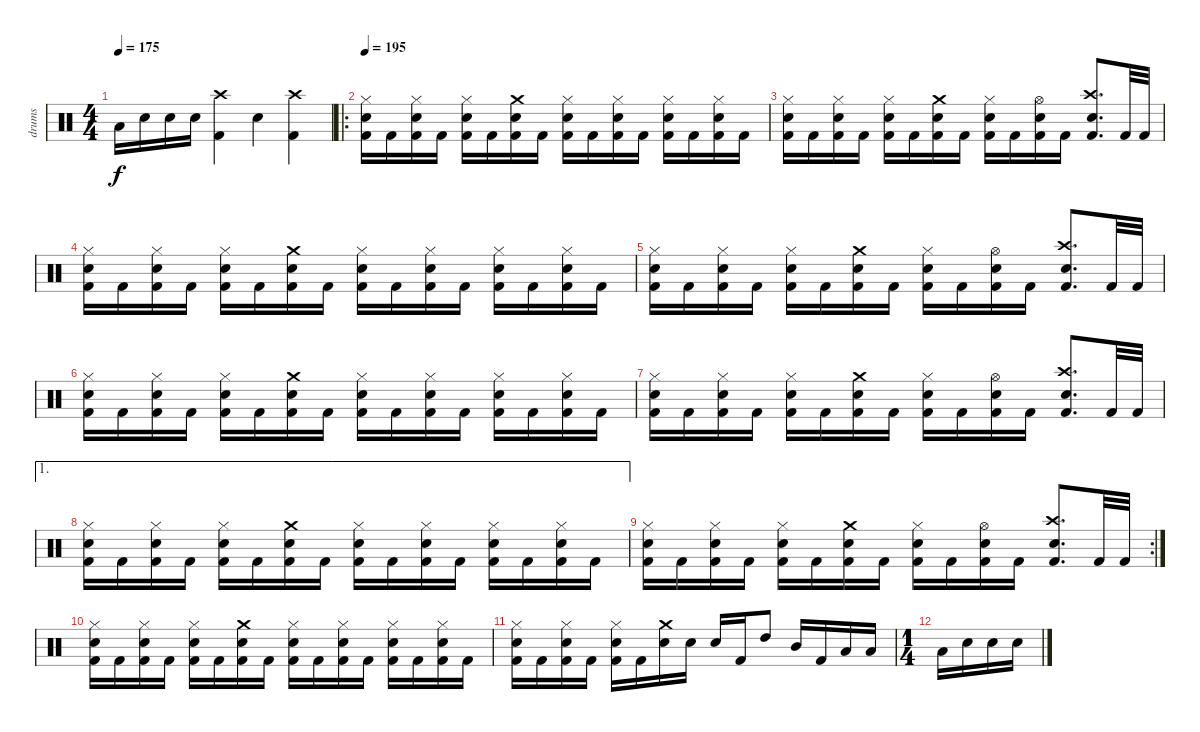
\track ("drums" "drums") {instrument percussion}
\staff {score}
\articulation defaults
\ts (4 4)
\tempo 175
\clef neutral
\ks c "Low Tom (hit)".16{dy f} "Electric Snare (hit)".16 "Electric Snare (hit)".16 "Electric Snare (hit)".16
("Crash high (hit)" "Kick (hit) 2").4 "Electric Snare (hit)".4 ("Crash high (hit)" "Kick (hit) 2").4 |
\ro
\tempo 195
("Hi-Hat (closed)" "Electric Snare (hit)" "Kick (hit) 2").16 "Kick (hit) 2".16 ("Hi-Hat (closed)" "Electric Snare (hit)" "Kick (hit) 2").16 "Kick (hit) 2".16 ("Hi-Hat (closed)" "Electric Snare (hit)" "Kick (hit) 2").16 "Kick (hit) 2".16 ("Crash medium (hit)" "Electric Snare (hit)" "Kick (hit) 2").16 "Kick (hit) 2".16 ("Hi-Hat (closed)" "Electric Snare (hit)" "Kick (hit) 2").16 "Kick (hit) 2".16 ("Hi-Hat (closed)" "Electric Snare (hit)" "Kick (hit) 2").16 "Kick (hit) 2".16 ("Hi-Hat (closed)" "Electric Snare (hit)" "Kick (hit) 2").16 "Kick (hit) 2".16 ("Hi-Hat (closed)" "Electric Snare (hit)" "Kick (hit) 2").16 "Kick (hit) 2".16 |
("Hi-Hat (closed)" "Electric Snare (hit)" "Kick (hit) 2").16 "Kick (hit) 2".16 ("Hi-Hat (closed)" "Electric Snare (hit)" "Kick (hit) 2").16 "Kick (hit) 2".16 ("Hi-Hat (closed)" "Electric Snare (hit)" "Kick (hit) 2").16 "Kick (hit) 2".16 ("Crash medium (hit)" "Electric Snare (hit)" "Kick (hit) 2").16 "Kick (hit) 2".16 ("Hi-Hat (closed)" "Electric Snare (hit)" "Kick (hit) 2").16 "Kick (hit) 2".16 ("Hi-Hat (open)" "Electric Snare (hit)" "Kick (hit) 2").16 "Kick (hit) 2".16 ("Crash high (hit)" "Electric Snare (hit)" "Kick (hit) 2").8{d} "Kick (hit) 2".32 "Kick (hit) 2".32 |
("Hi-Hat (closed)" "Electric Snare (hit)" "Kick (hit) 2").16 "Kick (hit) 2".16 ("Hi-Hat (closed)" "Electric Snare (hit)" "Kick (hit) 2").16 "Kick (hit) 2".16 ("Hi-Hat (closed)" "Electric Snare (hit)" "Kick (hit) 2").16 "Kick (hit) 2".16 ("Crash medium (hit)" "Electric Snare (hit)" "Kick (hit) 2").16 "Kick (hit) 2".16 ("Hi-Hat (closed)" "Electric Snare (hit)" "Kick (hit) 2").16 "Kick (hit) 2".16 ("Hi-Hat (closed)" "Electric Snare (hit)" "Kick (hit) 2").16 "Kick (hit) 2".16 ("Hi-Hat (closed)" "Electric Snare (hit)" "Kick (hit) 2").16 "Kick (hit) 2".16 ("Hi-Hat (closed)" "Electric Snare (hit)" "Kick (hit) 2").16 "Kick (hit) 2".16 |
("Hi-Hat (closed)" "Electric Snare (hit)" "Kick (hit) 2").16 "Kick (hit) 2".16 ("Hi-Hat (closed)" "Electric Snare (hit)" "Kick (hit) 2").16 "Kick (hit) 2".16 ("Hi-Hat (closed)" "Electric Snare (hit)" "Kick (hit) 2").16 "Kick (hit) 2".16 ("Crash medium (hit)" "Electric Snare (hit)" "Kick (hit) 2").16 "Kick (hit) 2".16 ("Hi-Hat (closed)" "Electric Snare (hit)" "Kick (hit) 2").16 "Kick (hit) 2".16 ("Hi-Hat (open)" "Electric Snare (hit)" "Kick (hit) 2").16 "Kick (hit) 2".16 ("Crash high (hit)" "Electric Snare (hit)" "Kick (hit) 2").8{d} "Kick (hit) 2".32 "Kick (hit) 2".32 |
("Hi-Hat (closed)" "Electric Snare (hit)" "Kick (hit) 2").16 "Kick (hit) 2".16 ("Hi-Hat (closed)" "Electric Snare (hit)" "Kick (hit) 2").16 "Kick (hit) 2".16 ("Hi-Hat (closed)" "Electric Snare (hit)" "Kick (hit) 2").16 "Kick (hit) 2".16 ("Crash medium (hit)" "Electric Snare (hit)" "Kick (hit) 2").16 "Kick (hit) 2".16 ("Hi-Hat (closed)" "Electric Snare (hit)" "Kick (hit) 2").16 "Kick (hit) 2".16 ("Hi-Hat (closed)" "Electric Snare (hit)" "Kick (hit) 2").16 "Kick (hit) 2".16 ("Hi-Hat (closed)" "Electric Snare (hit)" "Kick (hit) 2").16 "Kick (hit) 2".16 ("Hi-Hat (closed)" "Electric Snare (hit)" "Kick (hit) 2").16 "Kick (hit) 2".16 |
("Hi-Hat (closed)" "Electric Snare (hit)" "Kick (hit) 2").16 "Kick (hit) 2".16 ("Hi-Hat (closed)" "Electric Snare (hit)" "Kick (hit) 2").16 "Kick (hit) 2".16 ("Hi-Hat (closed)" "Electric Snare (hit)" "Kick (hit) 2").16 "Kick (hit) 2".16 ("Crash medium (hit)" "Electric Snare (hit)" "Kick (hit) 2").16 "Kick (hit) 2".16 ("Hi-Hat (closed)" "Electric Snare (hit)" "Kick (hit) 2").16 "Kick (hit) 2".16 ("Hi-Hat (open)" "Electric Snare (hit)" "Kick (hit) 2").16 "Kick (hit) 2".16 ("Crash high (hit)" "Electric Snare (hit)" "Kick (hit) 2").8{d} "Kick (hit) 2".32 "Kick (hit) 2".32 |
\ae 1
("Hi-Hat (closed)" "Electric Snare (hit)" "Kick (hit) 2").16 "Kick (hit) 2".16 ("Hi-Hat (closed)" "Electric Snare (hit)" "Kick (hit) 2").16 "Kick (hit) 2".16 ("Hi-Hat (closed)" "Electric Snare (hit)" "Kick (hit) 2").16 "Kick (hit) 2".16 ("Crash medium (hit)" "Electric Snare (hit)" "Kick (hit) 2").16 "Kick (hit) 2".16 ("Hi-Hat (closed)" "Electric Snare (hit)" "Kick (hit) 2").16 "Kick (hit) 2".16 ("Hi-Hat (closed)" "Electric Snare (hit)" "Kick (hit) 2").16 "Kick (hit) 2".16 ("Hi-Hat (closed)" "Electric Snare (hit)" "Kick (hit) 2").16 "Kick (hit) 2".16 ("Hi-Hat (closed)" "Electric Snare (hit)" "Kick (hit) 2").16 "Kick (hit) 2".16 |
\rc 2
("Hi-Hat (closed)" "Electric Snare (hit)" "Kick (hit) 2").16 "Kick (hit) 2".16 ("Hi-Hat (closed)" "Electric Snare (hit)" "Kick (hit) 2").16 "Kick (hit) 2".16 ("Hi-Hat (closed)" "Electric Snare (hit)" "Kick (hit) 2").16 "Kick (hit) 2".16 ("Crash medium (hit)" "Electric Snare (hit)" "Kick (hit) 2").16 "Kick (hit) 2".16 ("Hi-Hat (closed)" "Electric Snare (hit)" "Kick (hit) 2").16 "Kick (hit) 2".16 ("Hi-Hat (open)" "Electric Snare (hit)" "Kick (hit) 2").16 "Kick (hit) 2".16 ("Crash high (hit)" "Electric Snare (hit)" "Kick (hit) 2").8{d} "Kick (hit) 2".32 "Kick (hit) 2".32 |
("Hi-Hat (closed)" "Electric Snare (hit)" "Kick (hit) 2").16 "Kick (hit) 2".16 ("Hi-Hat (closed)" "Electric Snare (hit)" "Kick (hit) 2").16 "Kick (hit) 2".16 ("Hi-Hat (closed)" "Electric Snare (hit)" "Kick (hit) 2").16 "Kick (hit) 2".16 ("Crash medium (hit)" "Electric Snare (hit)" "Kick (hit) 2").16 "Kick (hit) 2".16 ("Hi-Hat (closed)" "Electric Snare (hit)" "Kick (hit) 2").16 "Kick (hit) 2".16 ("Hi-Hat (closed)" "Electric Snare (hit)" "Kick (hit) 2").16 "Kick (hit) 2".16 ("Hi-Hat (closed)" "Electric Snare (hit)" "Kick (hit) 2").16 "Kick (hit) 2".16 ("Hi-Hat (closed)" "Electric Snare (hit)" "Kick (hit) 2").16 "Kick (hit) 2".16 |
("Hi-Hat (closed)" "Electric Snare (hit)" "Kick (hit) 2").16 "Kick (hit) 2".16 ("Hi-Hat (closed)" "Electric Snare (hit)" "Kick (hit) 2").16 "Kick (hit) 2".16 ("Hi-Hat (closed)" "Electric Snare (hit)" "Kick (hit) 2").16 "Kick (hit) 2".16 ("Crash medium (hit)" "Electric Snare (hit)").16 "Electric Snare (hit)".16 "Electric Snare (hit)".16 "Kick (hit) 2".16 "High Tom (hit)".8 "Mid Tom (hit)".16 "Kick (hit) 2".16 "Low Tom (hit)".16 "Low Tom (hit)".16 |
\ts (1 4)
"Low Tom (hit)".16 "Electric Snare (hit)".16 "Electric Snare (hit)".16 "Electric Snare (hit)".16
